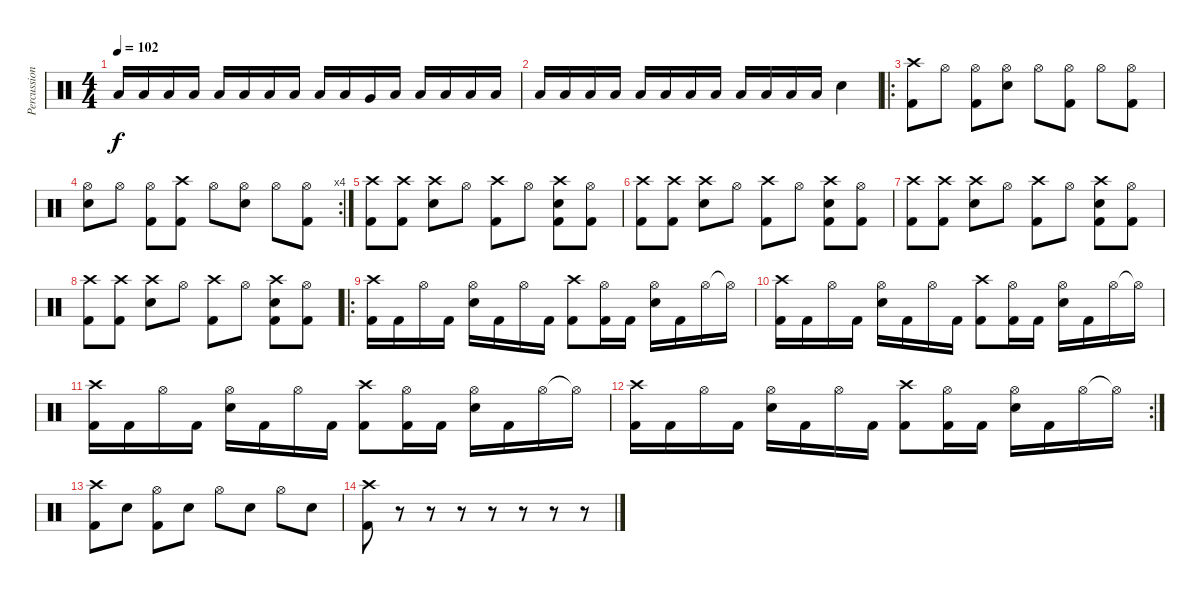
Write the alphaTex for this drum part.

\track ("Percussioni" "Percussion") {instrument percussion}
\staff {score}
\articulation defaults
\ts (4 4)
\tempo 102
\clef neutral
\ks c "Low Tom (hit)".16{dy f} "Low Tom (hit)".16 "Low Tom (hit)".16 "Low Tom (hit)".16 "Low Tom (hit)".16 "Low Tom (hit)".16 "Low Tom (hit)".16 "Low Tom (hit)".16 "Low Tom (hit)".16 "Low Tom (hit)".16 "Very Low Tom (hit)".16 "Low Tom (hit)".16 "Low Tom (hit)".16 "Low Tom (hit)".16 "Low Tom (hit)".16 "Low Tom (hit)".16
|
"Low Tom (hit)".16 "Low Floor Tom (hit)".16 "Low Floor Tom (hit)".16 "Low Floor Tom (hit)".16 "Low Floor Tom (hit)".16 "Low Floor Tom (hit)".16 "Low Floor Tom (hit)".16 "Low Floor Tom (hit)".16 "Low Floor Tom (hit)".16 "Low Floor Tom (hit)".16 "Low Floor Tom (hit)".16 "Low Floor Tom (hit)".16 "Electric Snare (hit)".4 |
\ro
("Crash high (hit)" "Kick (hit) 2").8 "Hi-Hat (open)".8 ("Hi-Hat (open)" "Kick (hit) 2").8 ("Hi-Hat (open)" "Electric Snare (hit)").8 "Hi-Hat (open)".8 ("Hi-Hat (open)" "Kick (hit) 2").8 "Hi-Hat (open)".8 ("Hi-Hat (open)" "Kick (hit) 2").8 |
\rc 4
("Hi-Hat (open)" "Electric Snare (hit)").8 "Hi-Hat (open)".8 ("Hi-Hat (open)" "Kick (hit) 2").8 ("Crash high (hit)" "Kick (hit) 2").8 "Hi-Hat (open)".8 ("Hi-Hat (open)" "Electric Snare (hit)").8 "Hi-Hat (open)".8 ("Hi-Hat (open)" "Kick (hit) 2").8 |
("Crash high (hit)" "Kick (hit) 2").8 ("Crash high (hit)" "Kick (hit) 2").8 ("Crash high (hit)" "Electric Snare (hit)").8 "Hi-Hat (open)".8 ("Crash high (hit)" "Kick (hit) 2").8 "Hi-Hat (open)".8 ("Crash high (hit)" "Electric Snare (hit)" "Kick (hit) 2").8 ("Hi-Hat (open)" "Kick (hit) 2").8 |
("Crash high (hit)" "Kick (hit) 2").8 ("Crash high (hit)" "Kick (hit) 2").8 ("Crash high (hit)" "Electric Snare (hit)").8 "Hi-Hat (open)".8 ("Crash high (hit)" "Kick (hit) 2").8 "Hi-Hat (open)".8 ("Crash high (hit)" "Electric Snare (hit)" "Kick (hit) 2").8 ("Hi-Hat (open)" "Kick (hit) 2").8 |
("Crash high (hit)" "Kick (hit) 2").8 ("Crash high (hit)" "Kick (hit) 2").8 ("Crash high (hit)" "Electric Snare (hit)").8 "Hi-Hat (open)".8 ("Crash high (hit)" "Kick (hit) 2").8 "Hi-Hat (open)".8 ("Crash high (hit)" "Electric Snare (hit)" "Kick (hit) 2").8 ("Hi-Hat (open)" "Kick (hit) 2").8 |
("Crash high (hit)" "Kick (hit) 2").8 ("Crash high (hit)" "Kick (hit) 2").8 ("Crash high (hit)" "Electric Snare (hit)").8 "Hi-Hat (open)".8 ("Crash high (hit)" "Kick (hit) 2").8 "Hi-Hat (open)".8 ("Crash high (hit)" "Electric Snare (hit)" "Kick (hit) 2").8 ("Hi-Hat (open)" "Kick (hit) 2").8 |
\ro
("Crash high (hit)" "Kick (hit) 2").16 "Kick (hit) 2".16 "Hi-Hat (open)".16 "Kick (hit) 2".16 ("Hi-Hat (open)" "Electric Snare (hit)").16 "Kick (hit) 2".16 "Hi-Hat (open)".16 "Kick (hit) 2".16 ("Crash high (hit)" "Kick (hit) 2").8 ("Hi-Hat (open)" "Kick (hit) 2").16 "Kick (hit) 2".16 ("Hi-Hat (open)" "Electric Snare (hit)").16 "Kick (hit) 2".16 "Hi-Hat (open)".16 "Hi-Hat (open)"{t}.16 |
("Crash high (hit)" "Kick (hit) 2").16 "Kick (hit) 2".16 "Hi-Hat (open)".16 "Kick (hit) 2".16 ("Hi-Hat (open)" "Electric Snare (hit)").16 "Kick (hit) 2".16 "Hi-Hat (open)".16 "Kick (hit) 2".16 ("Crash high (hit)" "Kick (hit) 2").8 ("Hi-Hat (open)" "Kick (hit) 2").16 "Kick (hit) 2".16 ("Hi-Hat (open)" "Electric Snare (hit)").16 "Kick (hit) 2".16 "Hi-Hat (open)".16 "Hi-Hat (open)"{t}.16 |
("Crash high (hit)" "Kick (hit) 2").16 "Kick (hit) 2".16 "Hi-Hat (open)".16 "Kick (hit) 2".16 ("Hi-Hat (open)" "Electric Snare (hit)").16 "Kick (hit) 2".16 "Hi-Hat (open)".16 "Kick (hit) 2".16 ("Crash high (hit)" "Kick (hit) 2").8 ("Hi-Hat (open)" "Kick (hit) 2").16 "Kick (hit) 2".16 ("Hi-Hat (open)" "Electric Snare (hit)").16 "Kick (hit) 2".16 "Hi-Hat (open)".16 "Hi-Hat (open)"{t}.16 |
\rc 2
("Crash high (hit)" "Kick (hit) 2").16 "Kick (hit) 2".16 "Hi-Hat (open)".16 "Kick (hit) 2".16 ("Hi-Hat (open)" "Electric Snare (hit)").16 "Kick (hit) 2".16 "Hi-Hat (open)".16 "Kick (hit) 2".16 ("Crash high (hit)" "Kick (hit) 2").8 ("Hi-Hat (open)" "Kick (hit) 2").16 "Kick (hit) 2".16 ("Hi-Hat (open)" "Electric Snare (hit)").16 "Kick (hit) 2".16 "Hi-Hat (open)".16 "Hi-Hat (open)"{t}.16 |
("Crash high (hit)" "Kick (hit) 2").8 "Electric Snare (hit)".8 ("Hi-Hat (open)" "Kick (hit) 2").8 "Electric Snare (hit)".8 "Hi-Hat (open)".8 "Electric Snare (hit)".8 "Hi-Hat (open)".8 "Electric Snare (hit)".8 |
("Crash high (hit)" "Kick (hit) 2").8 r.8 r.8 r.8 r.8 r.8 r.8 r.8
